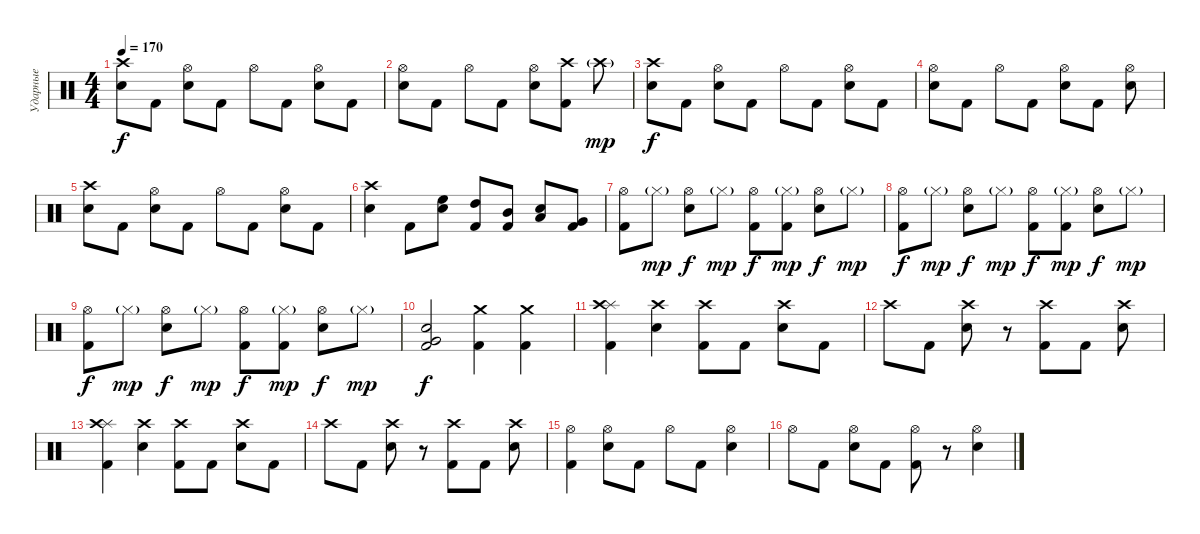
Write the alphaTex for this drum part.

\track ("Ударные" "Ударные") {instrument percussion}
\staff {score}
\articulation defaults
\ts (4 4)
\tempo 170
\clef neutral
\ks c
("Crash high (hit)" "Snare (hit) 2").8{dy f} "Kick (hit) 2".8 ("Hi-Hat (open)" "Snare (hit) 2").8 "Kick (hit) 2".8 "Hi-Hat (open)".8 "Kick (hit) 2".8 ("Hi-Hat (open)" "Snare (hit) 2").8 "Kick (hit) 2".8 |
("Hi-Hat (open)" "Snare (hit) 2").8 "Kick (hit) 2".8 "Hi-Hat (open)".8 "Kick (hit) 2".8 ("Hi-Hat (open)" "Snare (hit) 2").8 ("Crash high (hit)" "Kick (hit) 2").8 "Crash high (hit)"{g}.8{dy mp} |
("Crash high (hit)" "Snare (hit) 2").8{dy f} "Kick (hit) 2".8 ("Hi-Hat (open)" "Snare (hit) 2").8 "Kick (hit) 2".8 "Hi-Hat (open)".8 "Kick (hit) 2".8 ("Hi-Hat (open)" "Snare (hit) 2").8 "Kick (hit) 2".8 |
("Hi-Hat (open)" "Snare (hit) 2").8 "Kick (hit) 2".8 "Hi-Hat (open)".8 "Kick (hit) 2".8 ("Hi-Hat (open)" "Snare (hit) 2").8 "Kick (hit) 2".8 ("Hi-Hat (open)" "Snare (hit) 2").8 |
("Crash high (hit)" "Snare (hit) 2").8 "Kick (hit) 2".8 ("Hi-Hat (open)" "Snare (hit) 2").8 "Kick (hit) 2".8 "Hi-Hat (open)".8 "Kick (hit) 2".8 ("Hi-Hat (open)" "Snare (hit) 2").8 "Kick (hit) 2".8 |
("Crash high (hit)" "Snare (hit) 2").4 "Kick (hit) 2".8 ("High Floor Tom (hit)" "Snare (hit) 2").8 ("High Tom (hit)" "Kick (hit) 2").8 ("Mid Tom (hit)" "Kick (hit) 2").8 ("Low Tom (hit)" "Snare (hit) 2").8 ("Very Low Tom (hit)" "Kick (hit) 2").8 |
("Hi-Hat (open)" "Kick (hit) 2").8 "Hi-Hat (closed)"{g}.8{dy mp} ("Hi-Hat (open)" "Snare (hit) 2").8{dy f} "Hi-Hat (closed)"{g}.8{dy mp} ("Hi-Hat (open)" "Kick (hit) 2").8{dy f} ("Hi-Hat (closed)"{g} "Kick (hit) 2").8{dy mp} ("Hi-Hat (open)" "Snare (hit) 2").8{dy f} "Hi-Hat (closed)"{g}.8{dy mp} |
("Hi-Hat (open)" "Kick (hit) 2").8{dy f} "Hi-Hat (closed)"{g}.8{dy mp} ("Hi-Hat (open)" "Snare (hit) 2").8{dy f} "Hi-Hat (closed)"{g}.8{dy mp} ("Hi-Hat (open)" "Kick (hit) 2").8{dy f} ("Hi-Hat (closed)"{g} "Kick (hit) 2").8{dy mp} ("Hi-Hat (open)" "Snare (hit) 2").8{dy f} "Hi-Hat (closed)"{g}.8{dy mp} |
("Hi-Hat (open)" "Kick (hit) 2").8{dy f} "Hi-Hat (closed)"{g}.8{dy mp} ("Hi-Hat (open)" "Snare (hit) 2").8{dy f} "Hi-Hat (closed)"{g}.8{dy mp} ("Hi-Hat (open)" "Kick (hit) 2").8{dy f} ("Hi-Hat (closed)"{g} "Kick (hit) 2").8{dy mp} ("Hi-Hat (open)" "Snare (hit) 2").8{dy f} "Hi-Hat (closed)"{g}.8{dy mp} |
("Kick (hit) 2" "Very Low Tom (hit)" "Snare (hit) 2").2{dy f} ("Crash medium (hit)" "Kick (hit) 2").4 ("Crash medium (hit)" "Kick (hit) 2").4 |
("Splash (hit)" "Crash high (hit)" "Kick (hit) 2").4 ("Crash high (hit)" "Snare (hit) 2").4 ("Crash high (hit)" "Kick (hit) 2").8 "Kick (hit) 2".8 ("Crash high (hit)" "Snare (hit) 2").8 "Kick (hit) 2".8 |
"Crash high (hit)".8 "Kick (hit) 2".8 ("Crash high (hit)" "Snare (hit) 2").8 r.8 ("Crash high (hit)" "Kick (hit) 2").8 "Kick (hit) 2".8 ("Crash high (hit)" "Snare (hit) 2").8 |
("Splash (hit)" "Crash high (hit)" "Kick (hit) 2").4 ("Crash high (hit)" "Snare (hit) 2").4 ("Crash high (hit)" "Kick (hit) 2").8 "Kick (hit) 2".8 ("Crash high (hit)" "Snare (hit) 2").8 "Kick (hit) 2".8 |
"Crash high (hit)".8 "Kick (hit) 2".8 ("Crash high (hit)" "Snare (hit) 2").8 r.8 ("Crash high (hit)" "Kick (hit) 2").8 "Kick (hit) 2".8 ("Crash high (hit)" "Snare (hit) 2").8 |
("Hi-Hat (open)" "Kick (hit) 2").4 ("Hi-Hat (open)" "Snare (hit) 2").8 "Kick (hit) 2".8 "Hi-Hat (open)".8 "Kick (hit) 2".8 ("Hi-Hat (open)" "Snare (hit) 2").4 |
"Hi-Hat (open)".8 "Kick (hit) 2".8 ("Hi-Hat (open)" "Snare (hit) 2").8 "Kick (hit) 2".8 ("Hi-Hat (open)" "Kick (hit) 2").8 r.8 ("Hi-Hat (open)" "Snare (hit) 2").4
